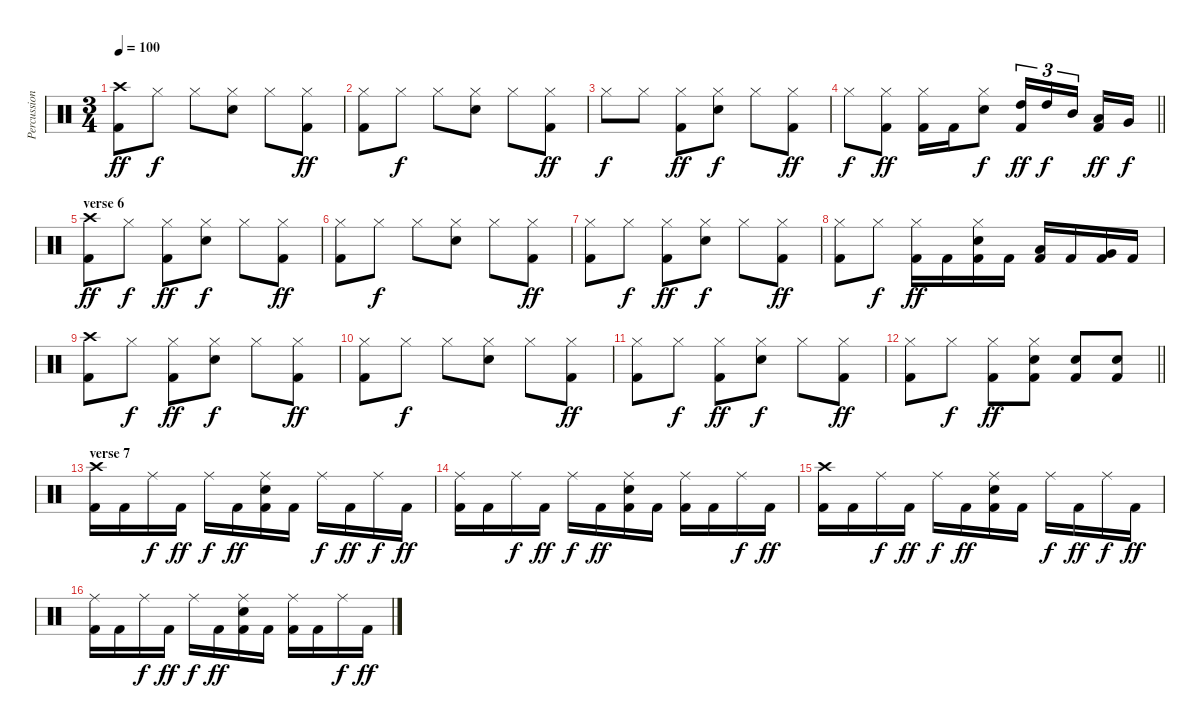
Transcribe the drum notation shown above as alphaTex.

\track ("Percussion" "Percussion") {instrument percussion}
\staff {score}
\articulation defaults
\ts (3 4)
\tempo 100
\clef neutral
\ks c
("Crash high (hit)" "Kick (hit) 2").8{dy ff} "Hi-Hat (closed)".8{dy f} "Hi-Hat (closed)".8 ("Hi-Hat (closed)" "Snare (hit) 2").8 "Hi-Hat (closed)".8 ("Hi-Hat (closed)" "Kick (hit) 2").8{dy ff} |
("Hi-Hat (closed)" "Kick (hit) 2").8 "Hi-Hat (closed)".8{dy f} "Hi-Hat (closed)".8 ("Hi-Hat (closed)" "Snare (hit) 2").8 "Hi-Hat (closed)".8 ("Hi-Hat (closed)" "Kick (hit) 2").8{dy ff} |
"Hi-Hat (closed)".8{dy f} "Hi-Hat (closed)".8 ("Hi-Hat (closed)" "Kick (hit) 2").8{dy ff} ("Hi-Hat (closed)" "Snare (hit) 2").8{dy f} "Hi-Hat (closed)".8 ("Hi-Hat (closed)" "Kick (hit) 2").8{dy ff} |
\barLineRight lightlight "Hi-Hat (closed)".8{dy f}
("Hi-Hat (closed)" "Kick (hit) 2").8{dy ff} ("Hi-Hat (closed)" "Kick (hit) 2").16 "Kick (hit) 2".16 ("Hi-Hat (closed)" "Snare (hit) 2").8{dy f} ("High Tom (hit)" "Kick (hit) 2").16{tu (3 2) dy ff} "High Tom (hit)".16{tu (3 2) dy f} "Mid Tom (hit)".16{tu (3 2) beam splitsecondary} ("Low Tom (hit)" "Kick (hit) 2").16{dy ff} "Very Low Tom (hit)".16{dy f} |
\section ("" "verse 6")
("Crash high (hit)" "Kick (hit) 2").8{dy ff} "Hi-Hat (closed)".8{dy f} ("Hi-Hat (closed)" "Kick (hit) 2").8{dy ff} ("Hi-Hat (closed)" "Snare (hit) 2").8{dy f} "Hi-Hat (closed)".8 ("Hi-Hat (closed)" "Kick (hit) 2").8{dy ff} |
("Hi-Hat (closed)" "Kick (hit) 2").8 "Hi-Hat (closed)".8{dy f} "Hi-Hat (closed)".8 ("Hi-Hat (closed)" "Snare (hit) 2").8 "Hi-Hat (closed)".8 ("Hi-Hat (closed)" "Kick (hit) 2").8{dy ff} |
("Hi-Hat (closed)" "Kick (hit) 2").8 "Hi-Hat (closed)".8{dy f} ("Hi-Hat (closed)" "Kick (hit) 2").8{dy ff} ("Hi-Hat (closed)" "Snare (hit) 2").8{dy f} "Hi-Hat (closed)".8 ("Hi-Hat (closed)" "Kick (hit) 2").8{dy ff} |
("Hi-Hat (closed)" "Kick (hit) 2").8 "Hi-Hat (closed)".8{dy f} ("Hi-Hat (closed)" "Kick (hit) 2").16{dy ff} "Kick (hit) 2".16 ("Hi-Hat (closed)" "Snare (hit) 2" "Kick (hit) 2").16 "Kick (hit) 2".16 ("Low Tom (hit)" "Kick (hit) 2").16 "Kick (hit) 2".16 ("Very Low Tom (hit)" "Kick (hit) 2").16 "Kick (hit) 2".16 |
("Crash high (hit)" "Kick (hit) 2").8 "Hi-Hat (closed)".8{dy f} ("Hi-Hat (closed)" "Kick (hit) 2").8{dy ff} ("Hi-Hat (closed)" "Snare (hit) 2").8{dy f} "Hi-Hat (closed)".8 ("Hi-Hat (closed)" "Kick (hit) 2").8{dy ff} |
("Hi-Hat (closed)" "Kick (hit) 2").8 "Hi-Hat (closed)".8{dy f} "Hi-Hat (closed)".8 ("Hi-Hat (closed)" "Snare (hit) 2").8 "Hi-Hat (closed)".8 ("Hi-Hat (closed)" "Kick (hit) 2").8{dy ff} |
("Hi-Hat (closed)" "Kick (hit) 2").8 "Hi-Hat (closed)".8{dy f} ("Hi-Hat (closed)" "Kick (hit) 2").8{dy ff} ("Hi-Hat (closed)" "Snare (hit) 2").8{dy f} "Hi-Hat (closed)".8 ("Hi-Hat (closed)" "Kick (hit) 2").8{dy ff} |
\barLineRight lightlight
("Hi-Hat (closed)" "Kick (hit) 2").8 "Hi-Hat (closed)".8{dy f} ("Hi-Hat (closed)" "Kick (hit) 2").8{dy ff} ("Hi-Hat (closed)" "Snare (hit) 2" "Kick (hit) 2").8 ("Snare (hit) 2" "Kick (hit) 2").8 ("Snare (hit) 2" "Kick (hit) 2").8 |
\section ("" "verse 7")
("Crash high (hit)" "Kick (hit) 2").16 "Kick (hit) 2".16 "Ride (middle)".16{dy f} "Kick (hit) 2".16{dy ff} "Ride (middle)".16{dy f} "Kick (hit) 2".16{dy ff} ("Ride (middle)" "Snare (hit) 2" "Kick (hit) 2").16 "Kick (hit) 2".16 "Ride (middle)".16{dy f} "Kick (hit) 2".16{dy ff} "Ride (middle)".16{dy f} "Kick (hit) 2".16{dy ff} |
("Ride (middle)" "Kick (hit) 2").16 "Kick (hit) 2".16 "Ride (middle)".16{dy f} "Kick (hit) 2".16{dy ff} "Ride (middle)".16{dy f} "Kick (hit) 2".16{dy ff} ("Ride (middle)" "Snare (hit) 2" "Kick (hit) 2").16 "Kick (hit) 2".16 ("Ride (middle)" "Kick (hit) 2").16 "Kick (hit) 2".16 "Ride (middle)".16{dy f} "Kick (hit) 2".16{dy ff} |
("Crash high (hit)" "Kick (hit) 2").16 "Kick (hit) 2".16 "Ride (middle)".16{dy f} "Kick (hit) 2".16{dy ff} "Ride (middle)".16{dy f} "Kick (hit) 2".16{dy ff} ("Ride (middle)" "Snare (hit) 2" "Kick (hit) 2").16 "Kick (hit) 2".16 "Ride (middle)".16{dy f} "Kick (hit) 2".16{dy ff} "Ride (middle)".16{dy f} "Kick (hit) 2".16{dy ff} |
("Ride (middle)" "Kick (hit) 2").16 "Kick (hit) 2".16 "Ride (middle)".16{dy f} "Kick (hit) 2".16{dy ff} "Ride (middle)".16{dy f} "Kick (hit) 2".16{dy ff} ("Ride (middle)" "Snare (hit) 2" "Kick (hit) 2").16 "Kick (hit) 2".16 ("Ride (middle)" "Kick (hit) 2").16 "Kick (hit) 2".16 "Ride (middle)".16{dy f} "Kick (hit) 2".16{dy ff}
